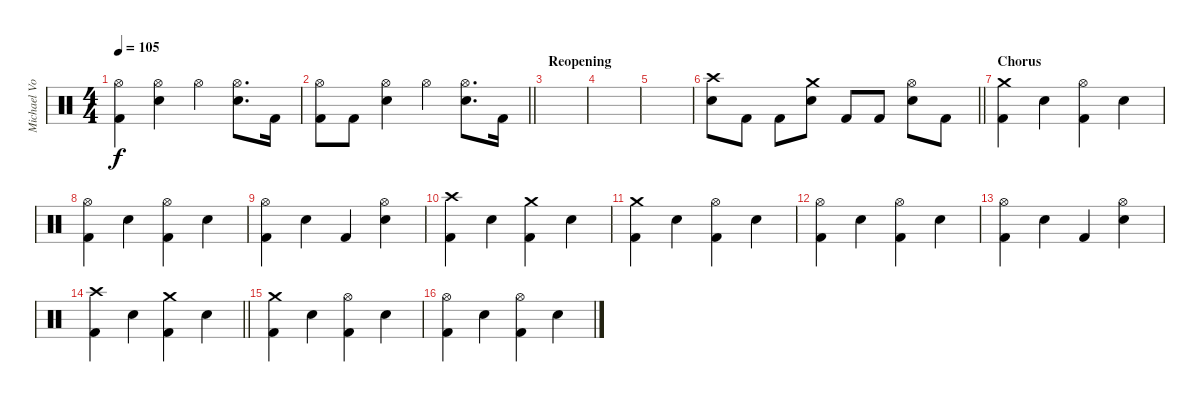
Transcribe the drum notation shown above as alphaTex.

\track ("Michael Von Knorring" "Michael Vo") {instrument percussion}
\staff {score}
\articulation defaults
\ts (4 4)
\tempo 105
\clef neutral
\ks c
("Hi-Hat (open)" "Kick (hit) 2").4{dy f} ("Hi-Hat (open)" "Snare (hit) 2").4 "Hi-Hat (open)".4 ("Hi-Hat (open)" "Snare (hit) 2").8{d} "Kick (hit) 2".16 |
\barLineRight lightlight
("Hi-Hat (open)" "Kick (hit) 2").8 "Kick (hit) 2".8 ("Hi-Hat (open)" "Snare (hit) 2").4 "Hi-Hat (open)".4 ("Hi-Hat (open)" "Snare (hit) 2").8{d} "Kick (hit) 2".16 |
\section ("" "Reopening")
|
|
|
\barLineRight lightlight
("Crash high (hit)" "Snare (hit) 2").8 "Kick (hit) 2".8 "Kick (hit) 2".8 ("Crash medium (hit)" "Snare (hit) 2").8 "Kick (hit) 2".8 "Kick (hit) 2".8 ("Hi-Hat (open)" "Snare (hit) 2").8 "Kick (hit) 2".8 |
\section ("" "Chorus")
("Crash medium (hit)" "Kick (hit) 2").4 "Snare (hit) 2".4 ("Hi-Hat (open)" "Kick (hit) 2").4 "Snare (hit) 2".4 |
("Hi-Hat (open)" "Kick (hit) 2").4 "Snare (hit) 2".4 ("Hi-Hat (open)" "Kick (hit) 2").4 "Snare (hit) 2".4 |
("Hi-Hat (open)" "Kick (hit) 2").4 "Snare (hit) 2".4 "Kick (hit) 2".4 ("Hi-Hat (open)" "Snare (hit) 2").4 |
("Crash high (hit)" "Kick (hit) 2").4 "Snare (hit) 2".4 ("Crash medium (hit)" "Kick (hit) 2").4 "Snare (hit) 2".4 |
("Crash medium (hit)" "Kick (hit) 2").4 "Snare (hit) 2".4 ("Hi-Hat (open)" "Kick (hit) 2").4 "Snare (hit) 2".4 |
("Hi-Hat (open)" "Kick (hit) 2").4 "Snare (hit) 2".4 ("Hi-Hat (open)" "Kick (hit) 2").4 "Snare (hit) 2".4 |
("Hi-Hat (open)" "Kick (hit) 2").4 "Snare (hit) 2".4 "Kick (hit) 2".4 ("Hi-Hat (open)" "Snare (hit) 2").4 |
\barLineRight lightlight
("Crash high (hit)" "Kick (hit) 2").4 "Snare (hit) 2".4 ("Crash medium (hit)" "Kick (hit) 2").4 "Snare (hit) 2".4 |
("Crash medium (hit)" "Kick (hit) 2").4 "Snare (hit) 2".4 ("Hi-Hat (open)" "Kick (hit) 2").4 "Snare (hit) 2".4 |
("Hi-Hat (open)" "Kick (hit) 2").4 "Snare (hit) 2".4 ("Hi-Hat (open)" "Kick (hit) 2").4 "Snare (hit) 2".4
